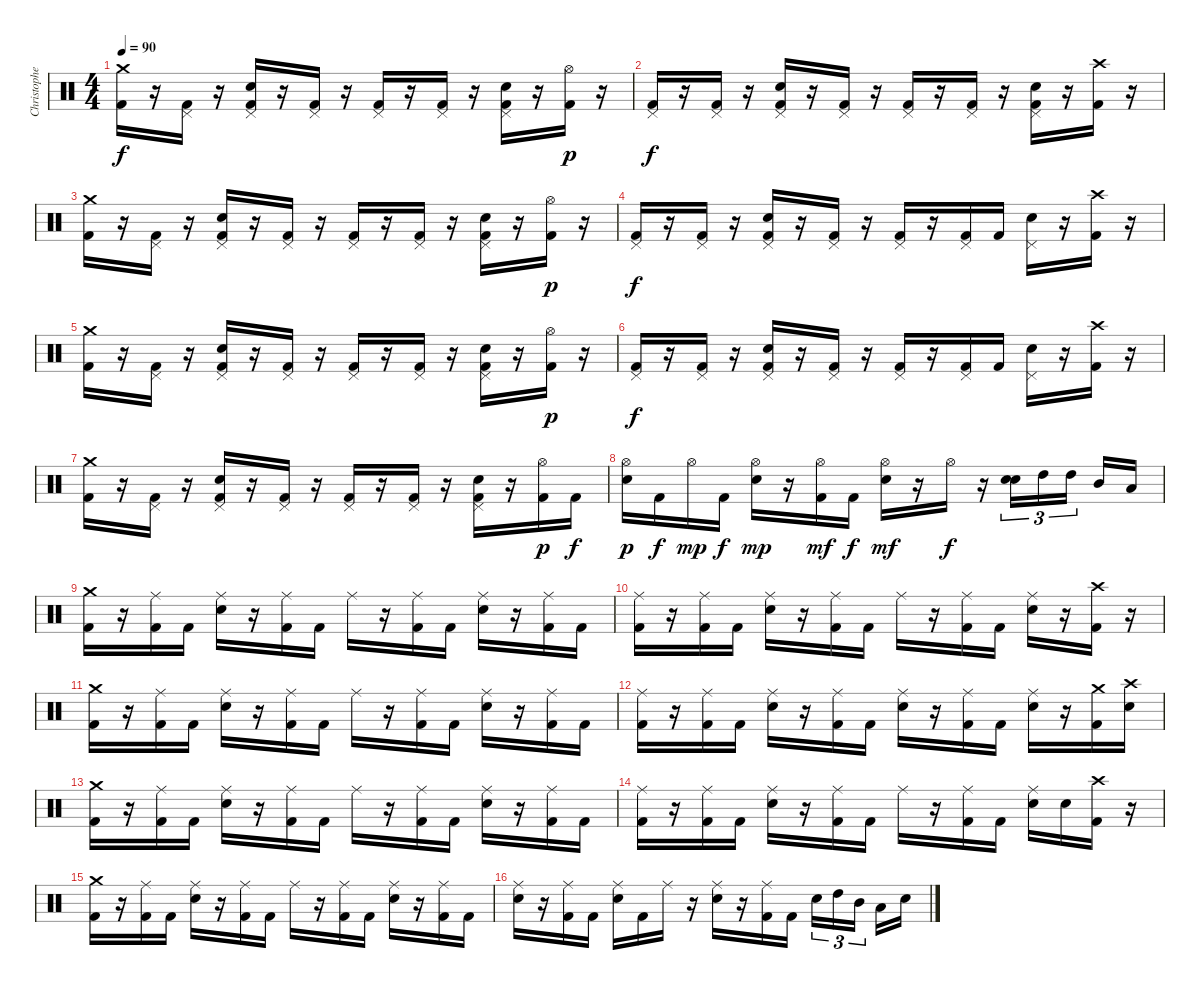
\track ("Christopher Kinder" "Christophe") {instrument percussion}
\staff {score}
\articulation defaults
\ts (4 4)
\tempo 90
\clef neutral
\ks c
("Crash medium (hit)" "Kick (hit) 2").16{dy f} r.16 ("Pedal Hi-Hat (hit)" "Kick (hit) 2").16 r.16 ("Pedal Hi-Hat (hit)" "Electric Snare (hit)" "Kick (hit) 2").16 r.16 ("Pedal Hi-Hat (hit)" "Kick (hit) 2").16 r.16 ("Pedal Hi-Hat (hit)" "Kick (hit) 2").16 r.16 ("Pedal Hi-Hat (hit)" "Kick (hit) 2").16 r.16 ("Pedal Hi-Hat (hit)" "Electric Snare (hit)" "Kick (hit) 2").16 r.16 ("Hi-Hat (open)" "Kick (hit) 2").16{dy p} r.16 |
("Pedal Hi-Hat (hit)" "Kick (hit) 2").16{dy f} r.16 ("Pedal Hi-Hat (hit)" "Kick (hit) 2").16 r.16 ("Pedal Hi-Hat (hit)" "Electric Snare (hit)" "Kick (hit) 2").16 r.16 ("Pedal Hi-Hat (hit)" "Kick (hit) 2").16 r.16 ("Pedal Hi-Hat (hit)" "Kick (hit) 2").16 r.16 ("Pedal Hi-Hat (hit)" "Kick (hit) 2").16 r.16 ("Pedal Hi-Hat (hit)" "Electric Snare (hit)" "Kick (hit) 2").16 r.16 ("Crash high (hit)" "Kick (hit) 2").16 r.16 |
("Crash medium (hit)" "Kick (hit) 2").16 r.16 ("Pedal Hi-Hat (hit)" "Kick (hit) 2").16 r.16 ("Pedal Hi-Hat (hit)" "Electric Snare (hit)" "Kick (hit) 2").16 r.16 ("Pedal Hi-Hat (hit)" "Kick (hit) 2").16 r.16 ("Pedal Hi-Hat (hit)" "Kick (hit) 2").16 r.16 ("Pedal Hi-Hat (hit)" "Kick (hit) 2").16 r.16 ("Pedal Hi-Hat (hit)" "Electric Snare (hit)" "Kick (hit) 2").16 r.16 ("Hi-Hat (open)" "Kick (hit) 2").16{dy p} r.16 |
("Pedal Hi-Hat (hit)" "Kick (hit) 2").16{dy f} r.16 ("Pedal Hi-Hat (hit)" "Kick (hit) 2").16 r.16 ("Pedal Hi-Hat (hit)" "Electric Snare (hit)" "Kick (hit) 2").16 r.16 ("Pedal Hi-Hat (hit)" "Kick (hit) 2").16 r.16 ("Pedal Hi-Hat (hit)" "Kick (hit) 2").16 r.16 ("Pedal Hi-Hat (hit)" "Kick (hit) 2").16 "Kick (hit) 2".16 ("Pedal Hi-Hat (hit)" "Electric Snare (hit)").16 r.16 ("Crash high (hit)" "Kick (hit) 2").16 r.16 |
("Crash medium (hit)" "Kick (hit) 2").16 r.16 ("Pedal Hi-Hat (hit)" "Kick (hit) 2").16 r.16 ("Pedal Hi-Hat (hit)" "Electric Snare (hit)" "Kick (hit) 2").16 r.16 ("Pedal Hi-Hat (hit)" "Kick (hit) 2").16 r.16 ("Pedal Hi-Hat (hit)" "Kick (hit) 2").16 r.16 ("Pedal Hi-Hat (hit)" "Kick (hit) 2").16 r.16 ("Pedal Hi-Hat (hit)" "Electric Snare (hit)" "Kick (hit) 2").16 r.16 ("Hi-Hat (open)" "Kick (hit) 2").16{dy p} r.16 |
("Pedal Hi-Hat (hit)" "Kick (hit) 2").16{dy f} r.16 ("Pedal Hi-Hat (hit)" "Kick (hit) 2").16 r.16 ("Pedal Hi-Hat (hit)" "Electric Snare (hit)" "Kick (hit) 2").16 r.16 ("Pedal Hi-Hat (hit)" "Kick (hit) 2").16 r.16 ("Pedal Hi-Hat (hit)" "Kick (hit) 2").16 r.16 ("Pedal Hi-Hat (hit)" "Kick (hit) 2").16 "Kick (hit) 2".16 ("Pedal Hi-Hat (hit)" "Electric Snare (hit)").16 r.16 ("Crash high (hit)" "Kick (hit) 2").16 r.16 |
("Crash medium (hit)" "Kick (hit) 2").16 r.16 ("Pedal Hi-Hat (hit)" "Kick (hit) 2").16 r.16 ("Pedal Hi-Hat (hit)" "Electric Snare (hit)" "Kick (hit) 2").16 r.16 ("Pedal Hi-Hat (hit)" "Kick (hit) 2").16 r.16 ("Pedal Hi-Hat (hit)" "Kick (hit) 2").16 r.16 ("Pedal Hi-Hat (hit)" "Kick (hit) 2").16 r.16 ("Pedal Hi-Hat (hit)" "Electric Snare (hit)" "Kick (hit) 2").16 r.16 ("Hi-Hat (open)" "Kick (hit) 2").16{dy p} "Kick (hit) 2".16{dy f} |
("Hi-Hat (open)" "Electric Snare (hit)").16{dy p} "Kick (hit) 2".16{dy f} "Hi-Hat (open)".16{dy mp} "Kick (hit) 2".16{dy f} ("Hi-Hat (open)" "Electric Snare (hit)").16{dy mp} r.16 ("Hi-Hat (open)" "Kick (hit) 2").16{dy mf} "Kick (hit) 2".16{dy f} ("Hi-Hat (open)" "Electric Snare (hit)").16{dy mf} r.16 "Hi-Hat (open)".16{dy f} r.16 ("Electric Snare (hit)" "Electric Snare (hit)").16{tu (3 2)} "High Tom (hit)".16{tu (3 2)} "High Tom (hit)".16{tu (3 2)} "Mid Tom (hit)".16 "Low Tom (hit)".16 |
("Crash medium (hit)" "Kick (hit) 2").16 r.16 ("Ride (middle)" "Kick (hit) 2").16 "Kick (hit) 2".16 ("Ride (middle)" "Electric Snare (hit)").16 r.16 ("Ride (middle)" "Kick (hit) 2").16 "Kick (hit) 2".16 "Ride (middle)".16 r.16 ("Ride (middle)" "Kick (hit) 2").16 "Kick (hit) 2".16 ("Ride (middle)" "Electric Snare (hit)").16 r.16 ("Ride (middle)" "Kick (hit) 2").16 "Kick (hit) 2".16 |
("Ride (middle)" "Kick (hit) 2").16 r.16 ("Ride (middle)" "Kick (hit) 2").16 "Kick (hit) 2".16 ("Ride (middle)" "Electric Snare (hit)").16 r.16 ("Ride (middle)" "Kick (hit) 2").16 "Kick (hit) 2".16 "Ride (middle)".16 r.16 ("Ride (middle)" "Kick (hit) 2").16 "Kick (hit) 2".16 ("Ride (middle)" "Electric Snare (hit)").16 r.16 ("Crash high (hit)" "Kick (hit) 2").16 r.16 |
("Crash medium (hit)" "Kick (hit) 2").16 r.16 ("Ride (middle)" "Kick (hit) 2").16 "Kick (hit) 2".16 ("Ride (middle)" "Electric Snare (hit)").16 r.16 ("Ride (middle)" "Kick (hit) 2").16 "Kick (hit) 2".16 "Ride (middle)".16 r.16 ("Ride (middle)" "Kick (hit) 2").16 "Kick (hit) 2".16 ("Ride (middle)" "Electric Snare (hit)").16 r.16 ("Ride (middle)" "Kick (hit) 2").16 "Kick (hit) 2".16 |
("Ride (middle)" "Kick (hit) 2").16 r.16 ("Ride (middle)" "Kick (hit) 2").16 "Kick (hit) 2".16 ("Ride (middle)" "Electric Snare (hit)").16 r.16 ("Ride (middle)" "Kick (hit) 2").16 "Kick (hit) 2".16 ("Ride (middle)" "Electric Snare (hit)").16 r.16 ("Ride (middle)" "Kick (hit) 2").16 "Kick (hit) 2".16 ("Ride (middle)" "Electric Snare (hit)").16 r.16 ("Crash medium (hit)" "Kick (hit) 2").16 ("Crash high (hit)" "Electric Snare (hit)").16 |
("Crash medium (hit)" "Kick (hit) 2").16 r.16 ("Ride (middle)" "Kick (hit) 2").16 "Kick (hit) 2".16 ("Ride (middle)" "Electric Snare (hit)").16 r.16 ("Ride (middle)" "Kick (hit) 2").16 "Kick (hit) 2".16 "Ride (middle)".16 r.16 ("Ride (middle)" "Kick (hit) 2").16 "Kick (hit) 2".16 ("Ride (middle)" "Electric Snare (hit)").16 r.16 ("Ride (middle)" "Kick (hit) 2").16 "Kick (hit) 2".16 |
("Ride (middle)" "Kick (hit) 2").16 r.16 ("Ride (middle)" "Kick (hit) 2").16 "Kick (hit) 2".16 ("Ride (middle)" "Electric Snare (hit)").16 r.16 ("Ride (middle)" "Kick (hit) 2").16 "Kick (hit) 2".16 "Ride (middle)".16 r.16 ("Ride (middle)" "Kick (hit) 2").16 "Kick (hit) 2".16 ("Ride (middle)" "Electric Snare (hit)").16 "Electric Snare (hit)".16 ("Crash high (hit)" "Kick (hit) 2").16 r.16 |
("Crash medium (hit)" "Kick (hit) 2").16 r.16 ("Ride (middle)" "Kick (hit) 2").16 "Kick (hit) 2".16 ("Ride (middle)" "Electric Snare (hit)").16 r.16 ("Ride (middle)" "Kick (hit) 2").16 "Kick (hit) 2".16 "Ride (middle)".16 r.16 ("Ride (middle)" "Kick (hit) 2").16 "Kick (hit) 2".16 ("Ride (middle)" "Electric Snare (hit)").16 r.16 ("Ride (middle)" "Kick (hit) 2").16 "Kick (hit) 2".16 |
("Ride (middle)" "Electric Snare (hit)").16 r.16 ("Ride (middle)" "Kick (hit) 2").16 "Kick (hit) 2".16 ("Ride (middle)" "Electric Snare (hit)").16 "Kick (hit) 2".16 "Ride (middle)".16 r.16 ("Ride (middle)" "Electric Snare (hit)").16 r.16 ("Ride (middle)" "Kick (hit) 2").16 "Kick (hit) 2".16 "Electric Snare (hit)".16{tu (3 2)} "High Tom (hit)".16{tu (3 2)} "Mid Tom (hit)".16{tu (3 2)} "Low Tom (hit)".16 "Electric Snare (hit)".16
